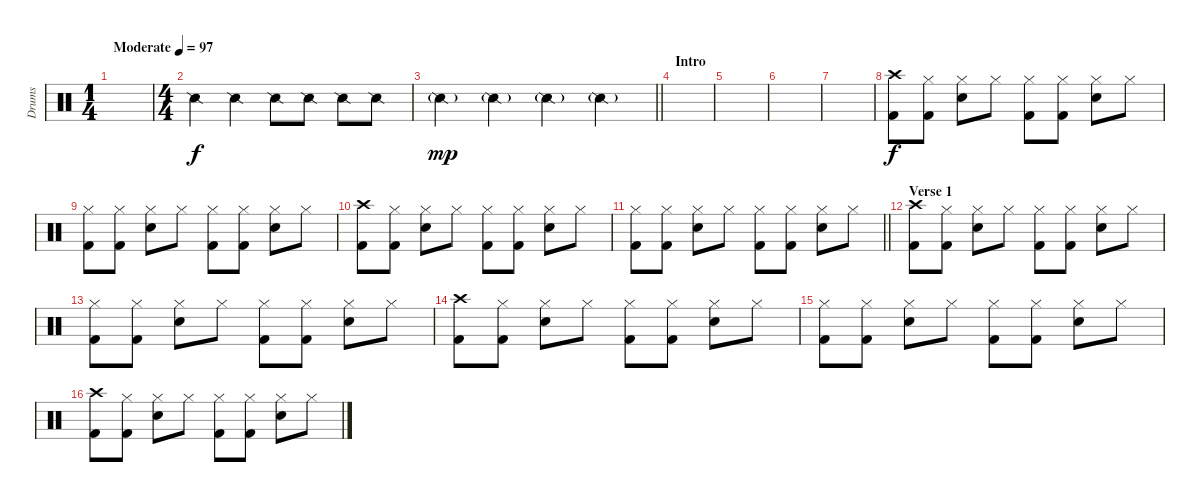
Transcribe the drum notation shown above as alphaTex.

\track ("Drums" "Drums") {instrument percussion}
\staff {score}
\articulation defaults
\ts (1 4)
\tempo (97 "Moderate")
\clef neutral
\ks c
|
\ts (4 4)
"Snare (side stick) 2".4 "Snare (side stick) 2".4 "Snare (side stick) 2".8 "Snare (side stick) 2".8 "Snare (side stick) 2".8 "Snare (side stick) 2".8 |
\barLineRight lightlight "Snare (side stick) 2"{g}.4{dy mp} "Snare (side stick) 2"{g}.4 "Snare (side stick) 2"{g}.4 "Snare (side stick) 2"{g}.4
|
\section ("" "Intro")
|
|
|
|
("Crash high (hit)" "Kick (hit) 2").8{dy f} ("Hi-Hat (closed)" "Kick (hit) 2").8 ("Hi-Hat (closed)" "Electric Snare (hit)").8 "Hi-Hat (closed)".8 ("Hi-Hat (closed)" "Kick (hit) 2").8 ("Hi-Hat (closed)" "Kick (hit) 2").8 ("Hi-Hat (closed)" "Electric Snare (hit)").8 "Hi-Hat (closed)".8 |
("Hi-Hat (closed)" "Kick (hit) 2").8 ("Hi-Hat (closed)" "Kick (hit) 2").8 ("Hi-Hat (closed)" "Electric Snare (hit)").8 "Hi-Hat (closed)".8 ("Hi-Hat (closed)" "Kick (hit) 2").8 ("Hi-Hat (closed)" "Kick (hit) 2").8 ("Hi-Hat (closed)" "Electric Snare (hit)").8 "Hi-Hat (closed)".8 |
("Crash high (hit)" "Kick (hit) 2").8 ("Hi-Hat (closed)" "Kick (hit) 2").8 ("Hi-Hat (closed)" "Electric Snare (hit)").8 "Hi-Hat (closed)".8 ("Hi-Hat (closed)" "Kick (hit) 2").8 ("Hi-Hat (closed)" "Kick (hit) 2").8 ("Hi-Hat (closed)" "Electric Snare (hit)").8 "Hi-Hat (closed)".8 |
\barLineRight lightlight
("Hi-Hat (closed)" "Kick (hit) 2").8 ("Hi-Hat (closed)" "Kick (hit) 2").8 ("Hi-Hat (closed)" "Electric Snare (hit)").8 "Hi-Hat (closed)".8 ("Hi-Hat (closed)" "Kick (hit) 2").8 ("Hi-Hat (closed)" "Kick (hit) 2").8 ("Hi-Hat (closed)" "Electric Snare (hit)").8 "Hi-Hat (closed)".8 |
\section ("" "Verse 1")
("Crash high (hit)" "Kick (hit) 2").8 ("Hi-Hat (closed)" "Kick (hit) 2").8 ("Hi-Hat (closed)" "Electric Snare (hit)").8 "Hi-Hat (closed)".8 ("Hi-Hat (closed)" "Kick (hit) 2").8 ("Hi-Hat (closed)" "Kick (hit) 2").8 ("Hi-Hat (closed)" "Electric Snare (hit)").8 "Hi-Hat (closed)".8 |
("Hi-Hat (closed)" "Kick (hit) 2").8 ("Hi-Hat (closed)" "Kick (hit) 2").8 ("Hi-Hat (closed)" "Electric Snare (hit)").8 "Hi-Hat (closed)".8 ("Hi-Hat (closed)" "Kick (hit) 2").8 ("Hi-Hat (closed)" "Kick (hit) 2").8 ("Hi-Hat (closed)" "Electric Snare (hit)").8 "Hi-Hat (closed)".8 |
("Crash high (hit)" "Kick (hit) 2").8 ("Hi-Hat (closed)" "Kick (hit) 2").8 ("Hi-Hat (closed)" "Electric Snare (hit)").8 "Hi-Hat (closed)".8 ("Hi-Hat (closed)" "Kick (hit) 2").8 ("Hi-Hat (closed)" "Kick (hit) 2").8 ("Hi-Hat (closed)" "Electric Snare (hit)").8 "Hi-Hat (closed)".8 |
("Hi-Hat (closed)" "Kick (hit) 2").8 ("Hi-Hat (closed)" "Kick (hit) 2").8 ("Hi-Hat (closed)" "Electric Snare (hit)").8 "Hi-Hat (closed)".8 ("Hi-Hat (closed)" "Kick (hit) 2").8 ("Hi-Hat (closed)" "Kick (hit) 2").8 ("Hi-Hat (closed)" "Electric Snare (hit)").8 "Hi-Hat (closed)".8 |
("Crash high (hit)" "Kick (hit) 2").8 ("Hi-Hat (closed)" "Kick (hit) 2").8 ("Hi-Hat (closed)" "Electric Snare (hit)").8 "Hi-Hat (closed)".8 ("Hi-Hat (closed)" "Kick (hit) 2").8 ("Hi-Hat (closed)" "Kick (hit) 2").8 ("Hi-Hat (closed)" "Electric Snare (hit)").8 "Hi-Hat (closed)".8
